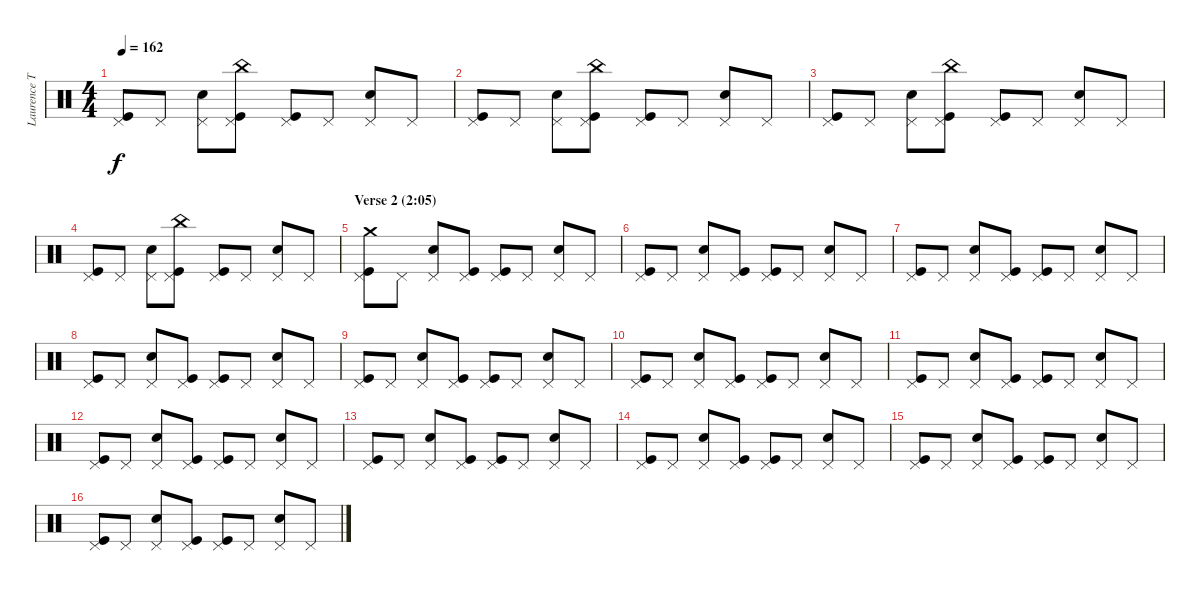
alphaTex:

\track ("Laurence Tolhurst (drums)" "Laurence T") {instrument percussion}
\staff {score}
\articulation defaults
\ts (4 4)
\tempo 162
\clef neutral
\ks c
("Pedal Hi-Hat (hit)" "Kick (hit)").8{dy f} "Pedal Hi-Hat (hit)".8 ("Pedal Hi-Hat (hit)" "Snare (hit) 2").8 ("China (hit)" "Pedal Hi-Hat (hit)" "Kick (hit)").8 ("Pedal Hi-Hat (hit)" "Kick (hit)").8 "Pedal Hi-Hat (hit)".8 ("Pedal Hi-Hat (hit)" "Snare (hit) 2").8 "Pedal Hi-Hat (hit)".8 |
("Pedal Hi-Hat (hit)" "Kick (hit)").8 "Pedal Hi-Hat (hit)".8 ("Pedal Hi-Hat (hit)" "Snare (hit) 2").8 ("China (hit)" "Pedal Hi-Hat (hit)" "Kick (hit)").8 ("Pedal Hi-Hat (hit)" "Kick (hit)").8 "Pedal Hi-Hat (hit)".8 ("Pedal Hi-Hat (hit)" "Snare (hit) 2").8 "Pedal Hi-Hat (hit)".8 |
("Pedal Hi-Hat (hit)" "Kick (hit)").8 "Pedal Hi-Hat (hit)".8 ("Pedal Hi-Hat (hit)" "Snare (hit) 2").8 ("China (hit)" "Pedal Hi-Hat (hit)" "Kick (hit)").8 ("Pedal Hi-Hat (hit)" "Kick (hit)").8 "Pedal Hi-Hat (hit)".8 ("Pedal Hi-Hat (hit)" "Snare (hit) 2").8 "Pedal Hi-Hat (hit)".8 |
("Pedal Hi-Hat (hit)" "Kick (hit)").8 "Pedal Hi-Hat (hit)".8 ("Pedal Hi-Hat (hit)" "Snare (hit) 2").8 ("China (hit)" "Pedal Hi-Hat (hit)" "Kick (hit)").8 ("Pedal Hi-Hat (hit)" "Kick (hit)").8 "Pedal Hi-Hat (hit)".8 ("Pedal Hi-Hat (hit)" "Snare (hit) 2").8 "Pedal Hi-Hat (hit)".8 |
\section ("" "Verse 2 (2:05)")
("Crash medium (hit)" "Pedal Hi-Hat (hit)" "Kick (hit)").8 "Pedal Hi-Hat (hit)".8 ("Pedal Hi-Hat (hit)" "Snare (hit) 2").8 ("Pedal Hi-Hat (hit)" "Kick (hit)").8 ("Pedal Hi-Hat (hit)" "Kick (hit)").8 "Pedal Hi-Hat (hit)".8 ("Pedal Hi-Hat (hit)" "Snare (hit) 2").8 "Pedal Hi-Hat (hit)".8 |
("Pedal Hi-Hat (hit)" "Kick (hit)").8 "Pedal Hi-Hat (hit)".8 ("Pedal Hi-Hat (hit)" "Snare (hit) 2").8 ("Pedal Hi-Hat (hit)" "Kick (hit)").8 ("Pedal Hi-Hat (hit)" "Kick (hit)").8 "Pedal Hi-Hat (hit)".8 ("Pedal Hi-Hat (hit)" "Snare (hit) 2").8 "Pedal Hi-Hat (hit)".8 |
("Pedal Hi-Hat (hit)" "Kick (hit)").8 "Pedal Hi-Hat (hit)".8 ("Pedal Hi-Hat (hit)" "Snare (hit) 2").8 ("Pedal Hi-Hat (hit)" "Kick (hit)").8 ("Pedal Hi-Hat (hit)" "Kick (hit)").8 "Pedal Hi-Hat (hit)".8 ("Pedal Hi-Hat (hit)" "Snare (hit) 2").8 "Pedal Hi-Hat (hit)".8 |
("Pedal Hi-Hat (hit)" "Kick (hit)").8 "Pedal Hi-Hat (hit)".8 ("Pedal Hi-Hat (hit)" "Snare (hit) 2").8 ("Pedal Hi-Hat (hit)" "Kick (hit)").8 ("Pedal Hi-Hat (hit)" "Kick (hit)").8 "Pedal Hi-Hat (hit)".8 ("Pedal Hi-Hat (hit)" "Snare (hit) 2").8 "Pedal Hi-Hat (hit)".8 |
("Pedal Hi-Hat (hit)" "Kick (hit)").8 "Pedal Hi-Hat (hit)".8 ("Pedal Hi-Hat (hit)" "Snare (hit) 2").8 ("Pedal Hi-Hat (hit)" "Kick (hit)").8 ("Pedal Hi-Hat (hit)" "Kick (hit)").8 "Pedal Hi-Hat (hit)".8 ("Pedal Hi-Hat (hit)" "Snare (hit) 2").8 "Pedal Hi-Hat (hit)".8 |
("Pedal Hi-Hat (hit)" "Kick (hit)").8 "Pedal Hi-Hat (hit)".8 ("Pedal Hi-Hat (hit)" "Snare (hit) 2").8 ("Pedal Hi-Hat (hit)" "Kick (hit)").8 ("Pedal Hi-Hat (hit)" "Kick (hit)").8 "Pedal Hi-Hat (hit)".8 ("Pedal Hi-Hat (hit)" "Snare (hit) 2").8 "Pedal Hi-Hat (hit)".8 |
("Pedal Hi-Hat (hit)" "Kick (hit)").8 "Pedal Hi-Hat (hit)".8 ("Pedal Hi-Hat (hit)" "Snare (hit) 2").8 ("Pedal Hi-Hat (hit)" "Kick (hit)").8 ("Pedal Hi-Hat (hit)" "Kick (hit)").8 "Pedal Hi-Hat (hit)".8 ("Pedal Hi-Hat (hit)" "Snare (hit) 2").8 "Pedal Hi-Hat (hit)".8 |
("Pedal Hi-Hat (hit)" "Kick (hit)").8 "Pedal Hi-Hat (hit)".8 ("Pedal Hi-Hat (hit)" "Snare (hit) 2").8 ("Pedal Hi-Hat (hit)" "Kick (hit)").8 ("Pedal Hi-Hat (hit)" "Kick (hit)").8 "Pedal Hi-Hat (hit)".8 ("Pedal Hi-Hat (hit)" "Snare (hit) 2").8 "Pedal Hi-Hat (hit)".8 |
("Pedal Hi-Hat (hit)" "Kick (hit)").8 "Pedal Hi-Hat (hit)".8 ("Pedal Hi-Hat (hit)" "Snare (hit) 2").8 ("Pedal Hi-Hat (hit)" "Kick (hit)").8 ("Pedal Hi-Hat (hit)" "Kick (hit)").8 "Pedal Hi-Hat (hit)".8 ("Pedal Hi-Hat (hit)" "Snare (hit) 2").8 "Pedal Hi-Hat (hit)".8 |
("Pedal Hi-Hat (hit)" "Kick (hit)").8 "Pedal Hi-Hat (hit)".8 ("Pedal Hi-Hat (hit)" "Snare (hit) 2").8 ("Pedal Hi-Hat (hit)" "Kick (hit)").8 ("Pedal Hi-Hat (hit)" "Kick (hit)").8 "Pedal Hi-Hat (hit)".8 ("Pedal Hi-Hat (hit)" "Snare (hit) 2").8 "Pedal Hi-Hat (hit)".8 |
("Pedal Hi-Hat (hit)" "Kick (hit)").8 "Pedal Hi-Hat (hit)".8 ("Pedal Hi-Hat (hit)" "Snare (hit) 2").8 ("Pedal Hi-Hat (hit)" "Kick (hit)").8 ("Pedal Hi-Hat (hit)" "Kick (hit)").8 "Pedal Hi-Hat (hit)".8 ("Pedal Hi-Hat (hit)" "Snare (hit) 2").8 "Pedal Hi-Hat (hit)".8 |
("Pedal Hi-Hat (hit)" "Kick (hit)").8 "Pedal Hi-Hat (hit)".8 ("Pedal Hi-Hat (hit)" "Snare (hit) 2").8 ("Pedal Hi-Hat (hit)" "Kick (hit)").8 ("Pedal Hi-Hat (hit)" "Kick (hit)").8 "Pedal Hi-Hat (hit)".8 ("Pedal Hi-Hat (hit)" "Snare (hit) 2").8 "Pedal Hi-Hat (hit)".8
